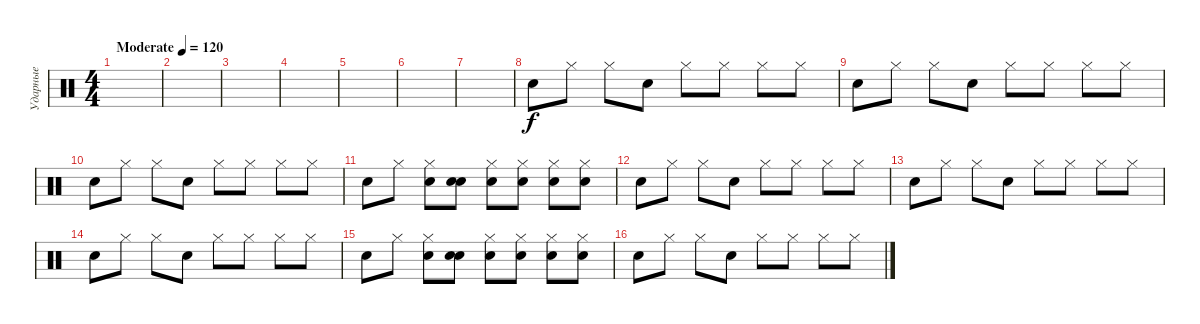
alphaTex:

\track ("Ударные" "Ударные") {instrument percussion}
\staff {score}
\articulation defaults
\ts (4 4)
\tempo (120 "Moderate")
\clef neutral
\ks c
|
|
|
|
|
|
|
"Electric Snare (hit)".8 "Hi-Hat (closed)".8 "Hi-Hat (closed)".8 "Electric Snare (hit)".8 "Hi-Hat (closed)".8 "Hi-Hat (closed)".8 "Hi-Hat (closed)".8 "Hi-Hat (closed)".8 |
"Electric Snare (hit)".8 "Hi-Hat (closed)".8 "Hi-Hat (closed)".8 "Electric Snare (hit)".8 "Hi-Hat (closed)".8 "Hi-Hat (closed)".8 "Hi-Hat (closed)".8 "Hi-Hat (closed)".8 |
"Electric Snare (hit)".8 "Hi-Hat (closed)".8 "Hi-Hat (closed)".8 "Electric Snare (hit)".8 "Hi-Hat (closed)".8 "Hi-Hat (closed)".8 "Hi-Hat (closed)".8 "Hi-Hat (closed)".8 |
"Electric Snare (hit)".8 "Hi-Hat (closed)".8 ("Hi-Hat (closed)" "Electric Snare (hit)").8 ("Electric Snare (hit)" "Electric Snare (hit)").8 ("Hi-Hat (closed)" "Electric Snare (hit)").8 ("Hi-Hat (closed)" "Electric Snare (hit)").8 ("Hi-Hat (closed)" "Electric Snare (hit)").8 ("Hi-Hat (closed)" "Electric Snare (hit)").8 |
"Electric Snare (hit)".8 "Hi-Hat (closed)".8 "Hi-Hat (closed)".8 "Electric Snare (hit)".8 "Hi-Hat (closed)".8 "Hi-Hat (closed)".8 "Hi-Hat (closed)".8 "Hi-Hat (closed)".8 |
"Electric Snare (hit)".8 "Hi-Hat (closed)".8 "Hi-Hat (closed)".8 "Electric Snare (hit)".8 "Hi-Hat (closed)".8 "Hi-Hat (closed)".8 "Hi-Hat (closed)".8 "Hi-Hat (closed)".8 |
"Electric Snare (hit)".8 "Hi-Hat (closed)".8 "Hi-Hat (closed)".8 "Electric Snare (hit)".8 "Hi-Hat (closed)".8 "Hi-Hat (closed)".8 "Hi-Hat (closed)".8 "Hi-Hat (closed)".8 |
"Electric Snare (hit)".8 "Hi-Hat (closed)".8 ("Hi-Hat (closed)" "Electric Snare (hit)").8 ("Electric Snare (hit)" "Electric Snare (hit)").8 ("Hi-Hat (closed)" "Electric Snare (hit)").8 ("Hi-Hat (closed)" "Electric Snare (hit)").8 ("Hi-Hat (closed)" "Electric Snare (hit)").8 ("Hi-Hat (closed)" "Electric Snare (hit)").8 |
"Electric Snare (hit)".8 "Hi-Hat (closed)".8 "Hi-Hat (closed)".8 "Electric Snare (hit)".8 "Hi-Hat (closed)".8 "Hi-Hat (closed)".8 "Hi-Hat (closed)".8 "Hi-Hat (closed)".8
